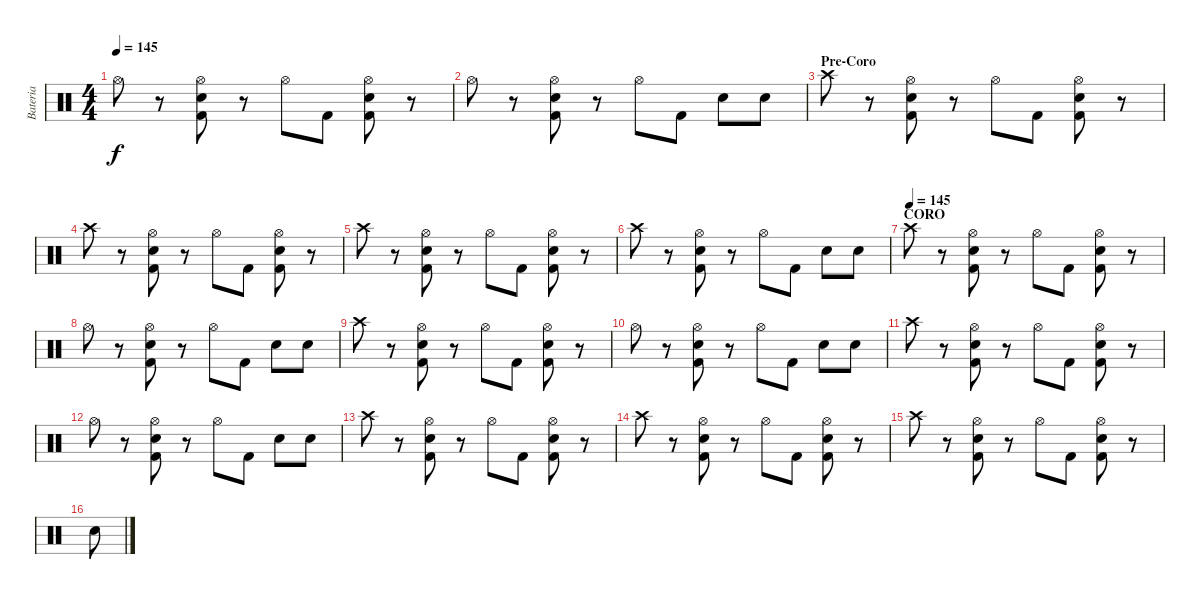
\track ("Bateria" "Bateria") {instrument percussion}
\staff {score}
\articulation defaults
\ts (4 4)
\tempo 145
\clef neutral
\ks c "Hi-Hat (open)".8{dy f}
r.8 ("Hi-Hat (open)" "Electric Snare (hit)" "Kick (hit) 2").8 r.8 "Hi-Hat (open)".8 "Kick (hit) 2".8 ("Hi-Hat (open)" "Electric Snare (hit)" "Kick (hit) 2").8 r.8 |
"Hi-Hat (open)".8 r.8 ("Hi-Hat (open)" "Electric Snare (hit)" "Kick (hit) 2").8 r.8 "Hi-Hat (open)".8 "Kick (hit) 2".8 "Electric Snare (hit)".8 "Electric Snare (hit)".8 |
\section ("" "Pre-Coro")
"Crash high (hit)".8 r.8 ("Hi-Hat (open)" "Electric Snare (hit)" "Kick (hit) 2").8 r.8 "Hi-Hat (open)".8 "Kick (hit) 2".8 ("Hi-Hat (open)" "Electric Snare (hit)" "Kick (hit) 2").8 r.8 |
"Crash high (hit)".8 r.8 ("Hi-Hat (open)" "Electric Snare (hit)" "Kick (hit) 2").8 r.8 "Hi-Hat (open)".8 "Kick (hit) 2".8 ("Hi-Hat (open)" "Electric Snare (hit)" "Kick (hit) 2").8 r.8 |
"Crash high (hit)".8 r.8 ("Hi-Hat (open)" "Electric Snare (hit)" "Kick (hit) 2").8 r.8 "Hi-Hat (open)".8 "Kick (hit) 2".8 ("Hi-Hat (open)" "Electric Snare (hit)" "Kick (hit) 2").8 r.8 |
"Crash high (hit)".8 r.8 ("Hi-Hat (open)" "Electric Snare (hit)" "Kick (hit) 2").8 r.8 "Hi-Hat (open)".8 "Kick (hit) 2".8 "Electric Snare (hit)".8 "Electric Snare (hit)".8 |
\section ("" "CORO")
\tempo (145)
"Crash high (hit)".8 r.8 ("Hi-Hat (open)" "Electric Snare (hit)" "Kick (hit) 2").8 r.8 "Hi-Hat (open)".8 "Kick (hit) 2".8 ("Hi-Hat (open)" "Electric Snare (hit)" "Kick (hit) 2").8 r.8 |
"Hi-Hat (open)".8 r.8 ("Hi-Hat (open)" "Electric Snare (hit)" "Kick (hit) 2").8 r.8 "Hi-Hat (open)".8 "Kick (hit) 2".8 "Electric Snare (hit)".8 "Electric Snare (hit)".8 |
"Crash high (hit)".8 r.8 ("Hi-Hat (open)" "Electric Snare (hit)" "Kick (hit) 2").8 r.8 "Hi-Hat (open)".8 "Kick (hit) 2".8 ("Hi-Hat (open)" "Electric Snare (hit)" "Kick (hit) 2").8 r.8 |
"Hi-Hat (open)".8 r.8 ("Hi-Hat (open)" "Electric Snare (hit)" "Kick (hit) 2").8 r.8 "Hi-Hat (open)".8 "Kick (hit) 2".8 "Electric Snare (hit)".8 "Electric Snare (hit)".8 |
"Crash high (hit)".8 r.8 ("Hi-Hat (open)" "Electric Snare (hit)" "Kick (hit) 2").8 r.8 "Hi-Hat (open)".8 "Kick (hit) 2".8 ("Hi-Hat (open)" "Electric Snare (hit)" "Kick (hit) 2").8 r.8 |
"Hi-Hat (open)".8 r.8 ("Hi-Hat (open)" "Electric Snare (hit)" "Kick (hit) 2").8 r.8 "Hi-Hat (open)".8 "Kick (hit) 2".8 "Electric Snare (hit)".8 "Electric Snare (hit)".8 |
"Crash high (hit)".8 r.8 ("Hi-Hat (open)" "Electric Snare (hit)" "Kick (hit) 2").8 r.8 "Hi-Hat (open)".8 "Kick (hit) 2".8 ("Hi-Hat (open)" "Electric Snare (hit)" "Kick (hit) 2").8 r.8 |
"Crash high (hit)".8 r.8 ("Hi-Hat (open)" "Electric Snare (hit)" "Kick (hit) 2").8 r.8 "Hi-Hat (open)".8 "Kick (hit) 2".8 ("Hi-Hat (open)" "Electric Snare (hit)" "Kick (hit) 2").8 r.8 |
"Crash high (hit)".8 r.8 ("Hi-Hat (open)" "Electric Snare (hit)" "Kick (hit) 2").8 r.8 "Hi-Hat (open)".8 "Kick (hit) 2".8 ("Hi-Hat (open)" "Electric Snare (hit)" "Kick (hit) 2").8 r.8 |
"Electric Snare (hit)".8
